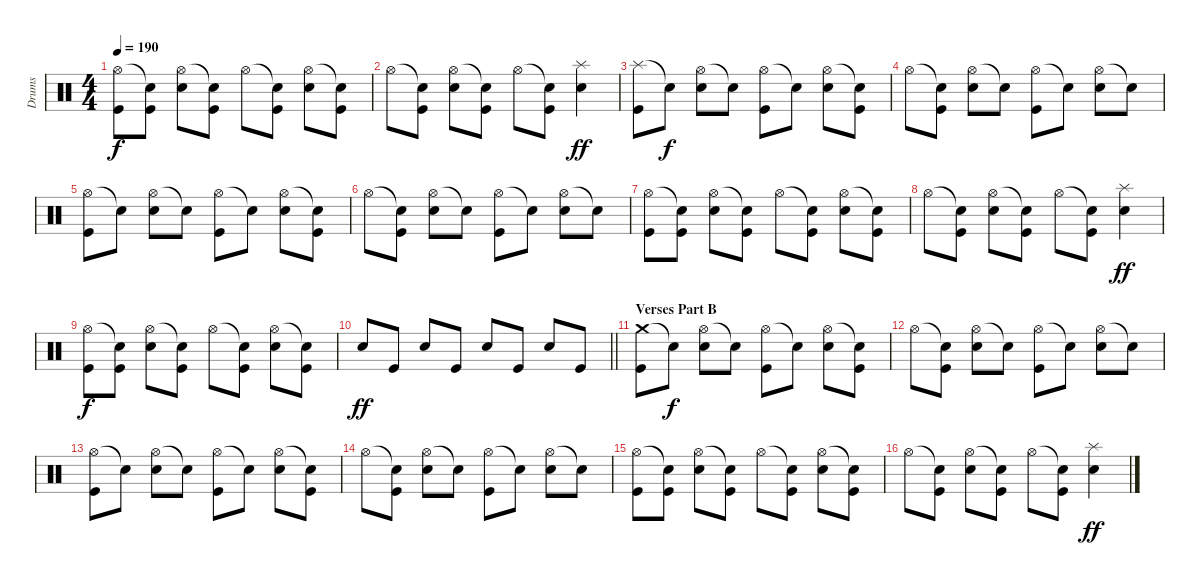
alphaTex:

\track ("Drums" "Drums") {instrument percussion}
\staff {score}
\articulation defaults
\ts (4 4)
\tempo 190
\clef neutral
\ks c
("Hi-Hat (open)" "Kick (hit)").8{dy f} ("Snare (hit)"{t} "Kick (hit)").8 ("Hi-Hat (open)" "Snare (hit) 2").8 ("Snare (hit)"{t} "Kick (hit)").8 "Hi-Hat (open)".8 ("Snare (hit)"{t} "Kick (hit)").8 ("Hi-Hat (open)" "Snare (hit) 2").8 ("Snare (hit)"{t} "Kick (hit)").8 |
"Hi-Hat (open)".8 ("Snare (hit)"{t} "Kick (hit)").8 ("Hi-Hat (open)" "Snare (hit) 2").8 ("Snare (hit)"{t} "Kick (hit)").8 "Hi-Hat (open)".8 ("Snare (hit)"{t} "Kick (hit)").8 ("Splash (hit)" "Snare (hit) 2").4{dy ff} |
("Splash (hit)" "Kick (hit)").8 "Snare (hit)"{t}.8{dy f} ("Hi-Hat (open)" "Snare (hit) 2").8 "Snare (hit)"{t}.8 ("Hi-Hat (open)" "Kick (hit)").8 "Snare (hit)"{t}.8 ("Hi-Hat (open)" "Snare (hit) 2").8 ("Snare (hit)"{t} "Kick (hit)").8 |
"Hi-Hat (open)".8 ("Snare (hit)"{t} "Kick (hit)").8 ("Hi-Hat (open)" "Snare (hit) 2").8 "Snare (hit)"{t}.8 ("Hi-Hat (open)" "Kick (hit)").8 "Snare (hit)"{t}.8 ("Hi-Hat (open)" "Snare (hit) 2").8 "Snare (hit)"{t}.8 |
("Hi-Hat (open)" "Kick (hit)").8 "Snare (hit)"{t}.8 ("Hi-Hat (open)" "Snare (hit) 2").8 "Snare (hit)"{t}.8 ("Hi-Hat (open)" "Kick (hit)").8 "Snare (hit)"{t}.8 ("Hi-Hat (open)" "Snare (hit) 2").8 ("Snare (hit)"{t} "Kick (hit)").8 |
"Hi-Hat (open)".8 ("Snare (hit)"{t} "Kick (hit)").8 ("Hi-Hat (open)" "Snare (hit) 2").8 "Snare (hit)"{t}.8 ("Hi-Hat (open)" "Kick (hit)").8 "Snare (hit)"{t}.8 ("Hi-Hat (open)" "Snare (hit) 2").8 "Snare (hit)"{t}.8 |
("Hi-Hat (open)" "Kick (hit)").8 ("Snare (hit)"{t} "Kick (hit)").8 ("Hi-Hat (open)" "Snare (hit) 2").8 ("Snare (hit)"{t} "Kick (hit)").8 "Hi-Hat (open)".8 ("Snare (hit)"{t} "Kick (hit)").8 ("Hi-Hat (open)" "Snare (hit) 2").8 ("Snare (hit)"{t} "Kick (hit)").8 |
"Hi-Hat (open)".8 ("Snare (hit)"{t} "Kick (hit)").8 ("Hi-Hat (open)" "Snare (hit) 2").8 ("Snare (hit)"{t} "Kick (hit)").8 "Hi-Hat (open)".8 ("Snare (hit)"{t} "Kick (hit)").8 ("Splash (hit)" "Snare (hit) 2").4{dy ff} |
("Hi-Hat (open)" "Kick (hit)").8{dy f} ("Snare (hit)"{t} "Kick (hit)").8 ("Hi-Hat (open)" "Snare (hit) 2").8 ("Snare (hit)"{t} "Kick (hit)").8 "Hi-Hat (open)".8 ("Snare (hit)"{t} "Kick (hit)").8 ("Hi-Hat (open)" "Snare (hit) 2").8 ("Snare (hit)"{t} "Kick (hit)").8 |
\barLineRight lightlight "Snare (hit) 2".8{dy ff} "Kick (hit)".8 "Snare (hit) 2".8 "Kick (hit)".8 "Snare (hit) 2".8 "Kick (hit)".8 "Snare (hit) 2".8 "Kick (hit)".8
|
\section ("" "Verses Part B")
("Crash medium (hit)" "Kick (hit)").8 "Snare (hit)"{t}.8{dy f} ("Hi-Hat (open)" "Snare (hit) 2").8 "Snare (hit)"{t}.8 ("Hi-Hat (open)" "Kick (hit)").8 "Snare (hit)"{t}.8 ("Hi-Hat (open)" "Snare (hit) 2").8 ("Snare (hit)"{t} "Kick (hit)").8 |
"Hi-Hat (open)".8 ("Snare (hit)"{t} "Kick (hit)").8 ("Hi-Hat (open)" "Snare (hit) 2").8 "Snare (hit)"{t}.8 ("Hi-Hat (open)" "Kick (hit)").8 "Snare (hit)"{t}.8 ("Hi-Hat (open)" "Snare (hit) 2").8 "Snare (hit)"{t}.8 |
("Hi-Hat (open)" "Kick (hit)").8 "Snare (hit)"{t}.8 ("Hi-Hat (open)" "Snare (hit) 2").8 "Snare (hit)"{t}.8 ("Hi-Hat (open)" "Kick (hit)").8 "Snare (hit)"{t}.8 ("Hi-Hat (open)" "Snare (hit) 2").8 ("Snare (hit)"{t} "Kick (hit)").8 |
"Hi-Hat (open)".8 ("Snare (hit)"{t} "Kick (hit)").8 ("Hi-Hat (open)" "Snare (hit) 2").8 "Snare (hit)"{t}.8 ("Hi-Hat (open)" "Kick (hit)").8 "Snare (hit)"{t}.8 ("Hi-Hat (open)" "Snare (hit) 2").8 "Snare (hit)"{t}.8 |
("Hi-Hat (open)" "Kick (hit)").8 ("Snare (hit)"{t} "Kick (hit)").8 ("Hi-Hat (open)" "Snare (hit) 2").8 ("Snare (hit)"{t} "Kick (hit)").8 "Hi-Hat (open)".8 ("Snare (hit)"{t} "Kick (hit)").8 ("Hi-Hat (open)" "Snare (hit) 2").8 ("Snare (hit)"{t} "Kick (hit)").8 |
"Hi-Hat (open)".8 ("Snare (hit)"{t} "Kick (hit)").8 ("Hi-Hat (open)" "Snare (hit) 2").8 ("Snare (hit)"{t} "Kick (hit)").8 "Hi-Hat (open)".8 ("Snare (hit)"{t} "Kick (hit)").8 ("Splash (hit)" "Snare (hit) 2").4{dy ff}
